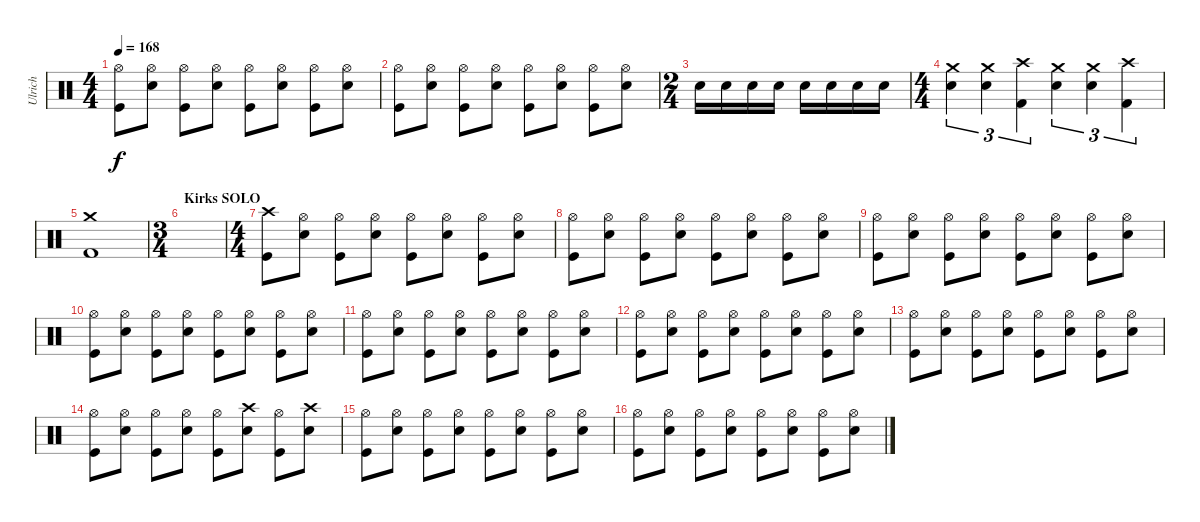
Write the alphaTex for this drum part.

\track ("Ulrich" "Ulrich") {instrument percussion}
\staff {score}
\articulation defaults
\ts (4 4)
\tempo 168
\clef neutral
\ks c
("Hi-Hat (open)" "Kick (hit)").8{dy f} ("Hi-Hat (open)" "Snare (hit) 2").8 ("Hi-Hat (open)" "Kick (hit)").8 ("Hi-Hat (open)" "Snare (hit) 2").8 ("Hi-Hat (open)" "Kick (hit)").8 ("Hi-Hat (open)" "Snare (hit) 2").8 ("Hi-Hat (open)" "Kick (hit)").8 ("Hi-Hat (open)" "Snare (hit) 2").8 |
("Hi-Hat (open)" "Kick (hit)").8 ("Hi-Hat (open)" "Snare (hit) 2").8 ("Hi-Hat (open)" "Kick (hit)").8 ("Hi-Hat (open)" "Snare (hit) 2").8 ("Hi-Hat (open)" "Kick (hit)").8 ("Hi-Hat (open)" "Snare (hit) 2").8 ("Hi-Hat (open)" "Kick (hit)").8 ("Hi-Hat (open)" "Snare (hit) 2").8 |
\ts (2 4)
"Snare (hit) 2".16 "Snare (hit) 2".16 "Snare (hit) 2".16 "Snare (hit) 2".16 "Snare (hit) 2".16 "Snare (hit) 2".16 "Snare (hit) 2".16 "Snare (hit) 2".16 |
\ts (4 4)
("Crash medium (hit)" "Snare (hit) 2").4{tu (3 2)} ("Crash medium (hit)" "Snare (hit) 2").4{tu (3 2)} ("Crash high (hit)" "Kick (hit) 2").4{tu (3 2)} ("Crash medium (hit)" "Snare (hit) 2").4{tu (3 2)} ("Crash medium (hit)" "Snare (hit) 2").4{tu (3 2)} ("Crash high (hit)" "Kick (hit) 2").4{tu (3 2)} |
("Crash medium (hit)" "Kick (hit) 2").1 |
\ts (3 4)
\section ("" "Kirks SOLO")
|
\ts (4 4)
("Crash high (hit)" "Kick (hit)").8 ("Hi-Hat (open)" "Snare (hit) 2").8 ("Hi-Hat (open)" "Kick (hit)").8 ("Hi-Hat (open)" "Snare (hit) 2").8 ("Hi-Hat (open)" "Kick (hit)").8 ("Hi-Hat (open)" "Snare (hit) 2").8 ("Hi-Hat (open)" "Kick (hit)").8 ("Hi-Hat (open)" "Snare (hit) 2").8 |
("Hi-Hat (open)" "Kick (hit)").8 ("Hi-Hat (open)" "Snare (hit) 2").8 ("Hi-Hat (open)" "Kick (hit)").8 ("Hi-Hat (open)" "Snare (hit) 2").8 ("Hi-Hat (open)" "Kick (hit)").8 ("Hi-Hat (open)" "Snare (hit) 2").8 ("Hi-Hat (open)" "Kick (hit)").8 ("Hi-Hat (open)" "Snare (hit) 2").8 |
("Hi-Hat (open)" "Kick (hit)").8 ("Hi-Hat (open)" "Snare (hit) 2").8 ("Hi-Hat (open)" "Kick (hit)").8 ("Hi-Hat (open)" "Snare (hit) 2").8 ("Hi-Hat (open)" "Kick (hit)").8 ("Hi-Hat (open)" "Snare (hit) 2").8 ("Hi-Hat (open)" "Kick (hit)").8 ("Hi-Hat (open)" "Snare (hit) 2").8 |
("Hi-Hat (open)" "Kick (hit)").8 ("Hi-Hat (open)" "Snare (hit) 2").8 ("Hi-Hat (open)" "Kick (hit)").8 ("Hi-Hat (open)" "Snare (hit) 2").8 ("Hi-Hat (open)" "Kick (hit)").8 ("Hi-Hat (open)" "Snare (hit) 2").8 ("Hi-Hat (open)" "Kick (hit)").8 ("Hi-Hat (open)" "Snare (hit) 2").8 |
("Hi-Hat (open)" "Kick (hit)").8 ("Hi-Hat (open)" "Snare (hit) 2").8 ("Hi-Hat (open)" "Kick (hit)").8 ("Hi-Hat (open)" "Snare (hit) 2").8 ("Hi-Hat (open)" "Kick (hit)").8 ("Hi-Hat (open)" "Snare (hit) 2").8 ("Hi-Hat (open)" "Kick (hit)").8 ("Hi-Hat (open)" "Snare (hit) 2").8 |
("Hi-Hat (open)" "Kick (hit)").8 ("Hi-Hat (open)" "Snare (hit) 2").8 ("Hi-Hat (open)" "Kick (hit)").8 ("Hi-Hat (open)" "Snare (hit) 2").8 ("Hi-Hat (open)" "Kick (hit)").8 ("Hi-Hat (open)" "Snare (hit) 2").8 ("Hi-Hat (open)" "Kick (hit)").8 ("Hi-Hat (open)" "Snare (hit) 2").8 |
("Hi-Hat (open)" "Kick (hit)").8 ("Hi-Hat (open)" "Snare (hit) 2").8 ("Hi-Hat (open)" "Kick (hit)").8 ("Hi-Hat (open)" "Snare (hit) 2").8 ("Hi-Hat (open)" "Kick (hit)").8 ("Hi-Hat (open)" "Snare (hit) 2").8 ("Hi-Hat (open)" "Kick (hit)").8 ("Hi-Hat (open)" "Snare (hit) 2").8 |
("Hi-Hat (open)" "Kick (hit)").8 ("Hi-Hat (open)" "Snare (hit) 2").8 ("Hi-Hat (open)" "Kick (hit)").8 ("Hi-Hat (open)" "Snare (hit) 2").8 ("Hi-Hat (open)" "Kick (hit)").8 ("Crash high (hit)" "Snare (hit) 2").8 ("Hi-Hat (open)" "Kick (hit)").8 ("Crash high (hit)" "Snare (hit) 2").8 |
("Hi-Hat (open)" "Kick (hit)").8 ("Hi-Hat (open)" "Snare (hit) 2").8 ("Hi-Hat (open)" "Kick (hit)").8 ("Hi-Hat (open)" "Snare (hit) 2").8 ("Hi-Hat (open)" "Kick (hit)").8 ("Hi-Hat (open)" "Snare (hit) 2").8 ("Hi-Hat (open)" "Kick (hit)").8 ("Hi-Hat (open)" "Snare (hit) 2").8 |
("Hi-Hat (open)" "Kick (hit)").8 ("Hi-Hat (open)" "Snare (hit) 2").8 ("Hi-Hat (open)" "Kick (hit)").8 ("Hi-Hat (open)" "Snare (hit) 2").8 ("Hi-Hat (open)" "Kick (hit)").8 ("Hi-Hat (open)" "Snare (hit) 2").8 ("Hi-Hat (open)" "Kick (hit)").8 ("Hi-Hat (open)" "Snare (hit) 2").8
